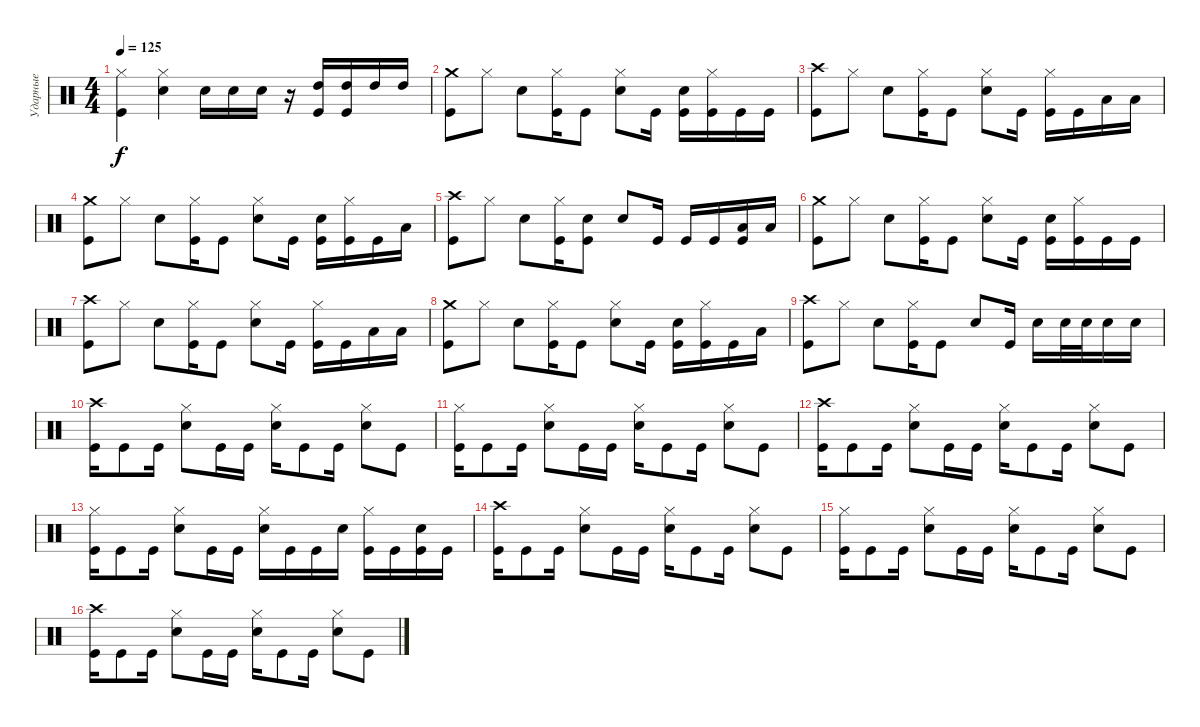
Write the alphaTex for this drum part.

\track ("Ударные" "Ударные") {instrument percussion}
\staff {score}
\articulation defaults
\ts (4 4)
\tempo 125
\clef neutral
\ks c
("Hi-Hat (closed)" "Kick (hit)").4{dy f} ("Hi-Hat (closed)" "Electric Snare (hit)").4 "Electric Snare (hit)".16 "Electric Snare (hit)".16 "Electric Snare (hit)".16 r.16 ("High Tom (hit)" "Kick (hit)").16 ("High Tom (hit)" "Kick (hit)").16 "High Tom (hit)".16 "High Tom (hit)".16 |
("Crash medium (hit)" "Kick (hit)").8 "Hi-Hat (closed)".8 "Electric Snare (hit)".8 ("Hi-Hat (closed)" "Kick (hit)").16 "Kick (hit)".8 ("Hi-Hat (closed)" "Electric Snare (hit)").8 "Kick (hit)".16 ("Electric Snare (hit)" "Kick (hit)").16 ("Hi-Hat (closed)" "Kick (hit)").16 "Kick (hit)".16 "Kick (hit)".16 |
("Crash high (hit)" "Kick (hit)").8 "Hi-Hat (closed)".8 "Electric Snare (hit)".8 ("Hi-Hat (closed)" "Kick (hit)").16 "Kick (hit)".8 ("Hi-Hat (closed)" "Electric Snare (hit)").8 "Kick (hit)".16 ("Hi-Hat (closed)" "Kick (hit)").16 "Kick (hit)".16 "Low Tom (hit)".16 "Low Tom (hit)".16 |
("Crash medium (hit)" "Kick (hit)").8 "Hi-Hat (closed)".8 "Electric Snare (hit)".8 ("Hi-Hat (closed)" "Kick (hit)").16 "Kick (hit)".8 ("Hi-Hat (closed)" "Electric Snare (hit)").8 "Kick (hit)".16 ("Electric Snare (hit)" "Kick (hit)").16 ("Hi-Hat (closed)" "Kick (hit)").16 "Kick (hit)".16 "Low Tom (hit)".16 |
("Crash high (hit)" "Kick (hit)").8 "Hi-Hat (closed)".8 "Electric Snare (hit)".8 ("Hi-Hat (closed)" "Kick (hit)").16 ("Electric Snare (hit)" "Kick (hit)").8 "Electric Snare (hit)".8 "Kick (hit)".16 "Kick (hit)".16 "Kick (hit)".16 ("Low Tom (hit)" "Kick (hit)").16 "Low Tom (hit)".16 |
("Crash medium (hit)" "Kick (hit)").8 "Hi-Hat (closed)".8 "Electric Snare (hit)".8 ("Hi-Hat (closed)" "Kick (hit)").16 "Kick (hit)".8 ("Hi-Hat (closed)" "Electric Snare (hit)").8 "Kick (hit)".16 ("Electric Snare (hit)" "Kick (hit)").16 ("Hi-Hat (closed)" "Kick (hit)").16 "Kick (hit)".16 "Kick (hit)".16 |
("Crash high (hit)" "Kick (hit)").8 "Hi-Hat (closed)".8 "Electric Snare (hit)".8 ("Hi-Hat (closed)" "Kick (hit)").16 "Kick (hit)".8 ("Hi-Hat (closed)" "Electric Snare (hit)").8 "Kick (hit)".16 ("Hi-Hat (closed)" "Kick (hit)").16 "Kick (hit)".16 "Low Tom (hit)".16 "Low Tom (hit)".16 |
("Crash medium (hit)" "Kick (hit)").8 "Hi-Hat (closed)".8 "Electric Snare (hit)".8 ("Hi-Hat (closed)" "Kick (hit)").16 "Kick (hit)".8 ("Hi-Hat (closed)" "Electric Snare (hit)").8 "Kick (hit)".16 ("Electric Snare (hit)" "Kick (hit)").16 ("Hi-Hat (closed)" "Kick (hit)").16 "Kick (hit)".16 "Low Tom (hit)".16 |
("Crash high (hit)" "Kick (hit)").8 "Hi-Hat (closed)".8 "Electric Snare (hit)".8 ("Hi-Hat (closed)" "Kick (hit)").16 "Kick (hit)".8 "Electric Snare (hit)".8 "Kick (hit)".16 "Electric Snare (hit)".16 "Electric Snare (hit)".32 "Electric Snare (hit)".32 "Electric Snare (hit)".16 "Electric Snare (hit)".16 |
("Crash high (hit)" "Kick (hit)").16 "Kick (hit)".8 "Kick (hit)".16 ("Hi-Hat (closed)" "Electric Snare (hit)").8 "Kick (hit)".16 "Kick (hit)".16 ("Hi-Hat (closed)" "Electric Snare (hit)").16 "Kick (hit)".8 "Kick (hit)".16 ("Hi-Hat (closed)" "Electric Snare (hit)").8 "Kick (hit)".8 |
("Hi-Hat (closed)" "Kick (hit)").16 "Kick (hit)".8 "Kick (hit)".16 ("Hi-Hat (closed)" "Electric Snare (hit)").8 "Kick (hit)".16 "Kick (hit)".16 ("Hi-Hat (closed)" "Electric Snare (hit)").16 "Kick (hit)".8 "Kick (hit)".16 ("Hi-Hat (closed)" "Electric Snare (hit)").8 "Kick (hit)".8 |
("Crash high (hit)" "Kick (hit)").16 "Kick (hit)".8 "Kick (hit)".16 ("Hi-Hat (closed)" "Electric Snare (hit)").8 "Kick (hit)".16 "Kick (hit)".16 ("Hi-Hat (closed)" "Electric Snare (hit)").16 "Kick (hit)".8 "Kick (hit)".16 ("Hi-Hat (closed)" "Electric Snare (hit)").8 "Kick (hit)".8 |
("Hi-Hat (closed)" "Kick (hit)").16 "Kick (hit)".8 "Kick (hit)".16 ("Hi-Hat (closed)" "Electric Snare (hit)").8 "Kick (hit)".16 "Kick (hit)".16 ("Hi-Hat (closed)" "Electric Snare (hit)").16 "Kick (hit)".16 "Kick (hit)".16 "Electric Snare (hit)".16 ("Hi-Hat (closed)" "Kick (hit)").16 "Kick (hit)".16 ("Electric Snare (hit)" "Kick (hit)").16 "Kick (hit)".16 |
("Crash high (hit)" "Kick (hit)").16 "Kick (hit)".8 "Kick (hit)".16 ("Hi-Hat (closed)" "Electric Snare (hit)").8 "Kick (hit)".16 "Kick (hit)".16 ("Hi-Hat (closed)" "Electric Snare (hit)").16 "Kick (hit)".8 "Kick (hit)".16 ("Hi-Hat (closed)" "Electric Snare (hit)").8 "Kick (hit)".8 |
("Hi-Hat (closed)" "Kick (hit)").16 "Kick (hit)".8 "Kick (hit)".16 ("Hi-Hat (closed)" "Electric Snare (hit)").8 "Kick (hit)".16 "Kick (hit)".16 ("Hi-Hat (closed)" "Electric Snare (hit)").16 "Kick (hit)".8 "Kick (hit)".16 ("Hi-Hat (closed)" "Electric Snare (hit)").8 "Kick (hit)".8 |
("Crash high (hit)" "Kick (hit)").16 "Kick (hit)".8 "Kick (hit)".16 ("Hi-Hat (closed)" "Electric Snare (hit)").8 "Kick (hit)".16 "Kick (hit)".16 ("Hi-Hat (closed)" "Electric Snare (hit)").16 "Kick (hit)".8 "Kick (hit)".16 ("Hi-Hat (closed)" "Electric Snare (hit)").8 "Kick (hit)".8
